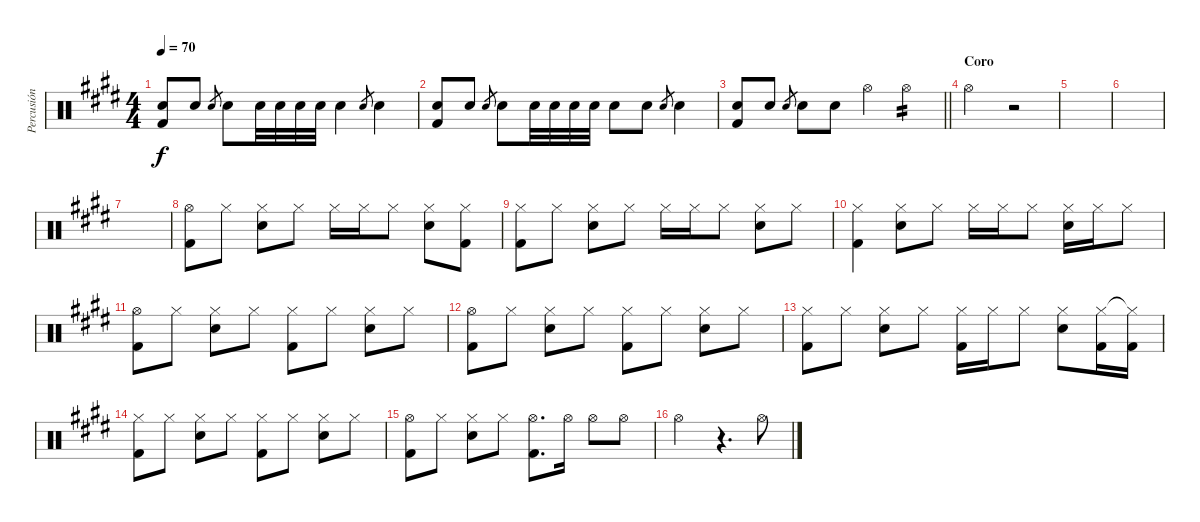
\track ("Percusión" "Percusión") {instrument percussion}
\staff {score}
\articulation defaults
\ts (4 4)
\tempo 70
\clef neutral
\ks e
("Snare (hit) 2" "Kick (hit) 2").8{dy f} "Snare (hit) 2".8 "Snare (hit) 2".8{gr} "Snare (hit) 2".8 "Snare (hit) 2".32 "Snare (hit) 2".32 "Snare (hit) 2".32 "Snare (hit) 2".32 "Snare (hit) 2".4 "Snare (hit) 2".8{gr} "Snare (hit) 2".4 |
("Snare (hit) 2" "Kick (hit) 2").8 "Snare (hit) 2".8 "Snare (hit) 2".8{gr} "Snare (hit) 2".8 "Snare (hit) 2".32 "Snare (hit) 2".32 "Snare (hit) 2".32 "Snare (hit) 2".32 "Snare (hit) 2".8 "Snare (hit) 2".8 "Snare (hit) 2".8{gr} "Snare (hit) 2".4 |
\barLineRight lightlight
("Snare (hit) 2" "Kick (hit) 2").8 "Snare (hit) 2".8 "Snare (hit) 2".8{gr} "Snare (hit) 2".8 "Snare (hit) 2".8 "Hi-Hat (open)".4 "Hi-Hat (open)".4{tp 2} |
\section ("" "Coro")
"Hi-Hat (open)".2 r.2 |
|
|
|
("Hi-Hat (open)" "Kick (hit) 2").8 "Hi-Hat (closed)".8 ("Hi-Hat (closed)" "Snare (hit) 2").8 "Hi-Hat (closed)".8 "Hi-Hat (closed)".16 "Hi-Hat (closed)".16 "Hi-Hat (closed)".8 ("Hi-Hat (closed)" "Snare (hit) 2").8 ("Hi-Hat (closed)" "Kick (hit) 2").8 |
("Hi-Hat (closed)" "Kick (hit) 2").8 "Hi-Hat (closed)".8 ("Hi-Hat (closed)" "Snare (hit) 2").8 "Hi-Hat (closed)".8 "Hi-Hat (closed)".16 "Hi-Hat (closed)".16 "Hi-Hat (closed)".8 ("Hi-Hat (closed)" "Snare (hit) 2").8 "Hi-Hat (closed)".8 |
("Hi-Hat (closed)" "Kick (hit) 2").4 ("Hi-Hat (closed)" "Snare (hit) 2").8 "Hi-Hat (closed)".8 "Hi-Hat (closed)".16 "Hi-Hat (closed)".16 "Hi-Hat (closed)".8 ("Hi-Hat (closed)" "Snare (hit) 2").16 "Hi-Hat (closed)".16 "Hi-Hat (closed)".8 |
("Hi-Hat (open)" "Kick (hit) 2").8 "Hi-Hat (closed)".8 ("Hi-Hat (closed)" "Snare (hit) 2").8 "Hi-Hat (closed)".8 ("Hi-Hat (closed)" "Kick (hit) 2").8 "Hi-Hat (closed)".8 ("Hi-Hat (closed)" "Snare (hit) 2").8 "Hi-Hat (closed)".8 |
("Hi-Hat (open)" "Kick (hit) 2").8 "Hi-Hat (closed)".8 ("Hi-Hat (closed)" "Snare (hit) 2").8 "Hi-Hat (closed)".8 ("Hi-Hat (closed)" "Kick (hit) 2").8 "Hi-Hat (closed)".8 ("Hi-Hat (closed)" "Snare (hit) 2").8 "Hi-Hat (closed)".8 |
("Hi-Hat (closed)" "Kick (hit) 2").8 "Hi-Hat (closed)".8 ("Hi-Hat (closed)" "Snare (hit) 2").8 "Hi-Hat (closed)".8 ("Hi-Hat (closed)" "Kick (hit) 2").16 "Hi-Hat (closed)".16 "Hi-Hat (closed)".8 ("Hi-Hat (closed)" "Snare (hit) 2").8 ("Hi-Hat (closed)" "Kick (hit) 2").16 ("Hi-Hat (closed)"{t} "Kick (hit) 2").16 |
("Hi-Hat (closed)" "Kick (hit) 2").8 "Hi-Hat (closed)".8 ("Hi-Hat (closed)" "Snare (hit) 2").8 "Hi-Hat (closed)".8 ("Hi-Hat (closed)" "Kick (hit) 2").8 "Hi-Hat (closed)".8 ("Hi-Hat (closed)" "Snare (hit) 2").8 "Hi-Hat (closed)".8 |
("Hi-Hat (open)" "Kick (hit) 2").8 "Hi-Hat (closed)".8 ("Hi-Hat (closed)" "Snare (hit) 2").8 "Hi-Hat (closed)".8 ("Hi-Hat (open)" "Kick (hit) 2").8{d} "Hi-Hat (open)".16 "Hi-Hat (open)".8 "Hi-Hat (open)".8 |
"Hi-Hat (open)".2 r.4{d} "Hi-Hat (open)".8
